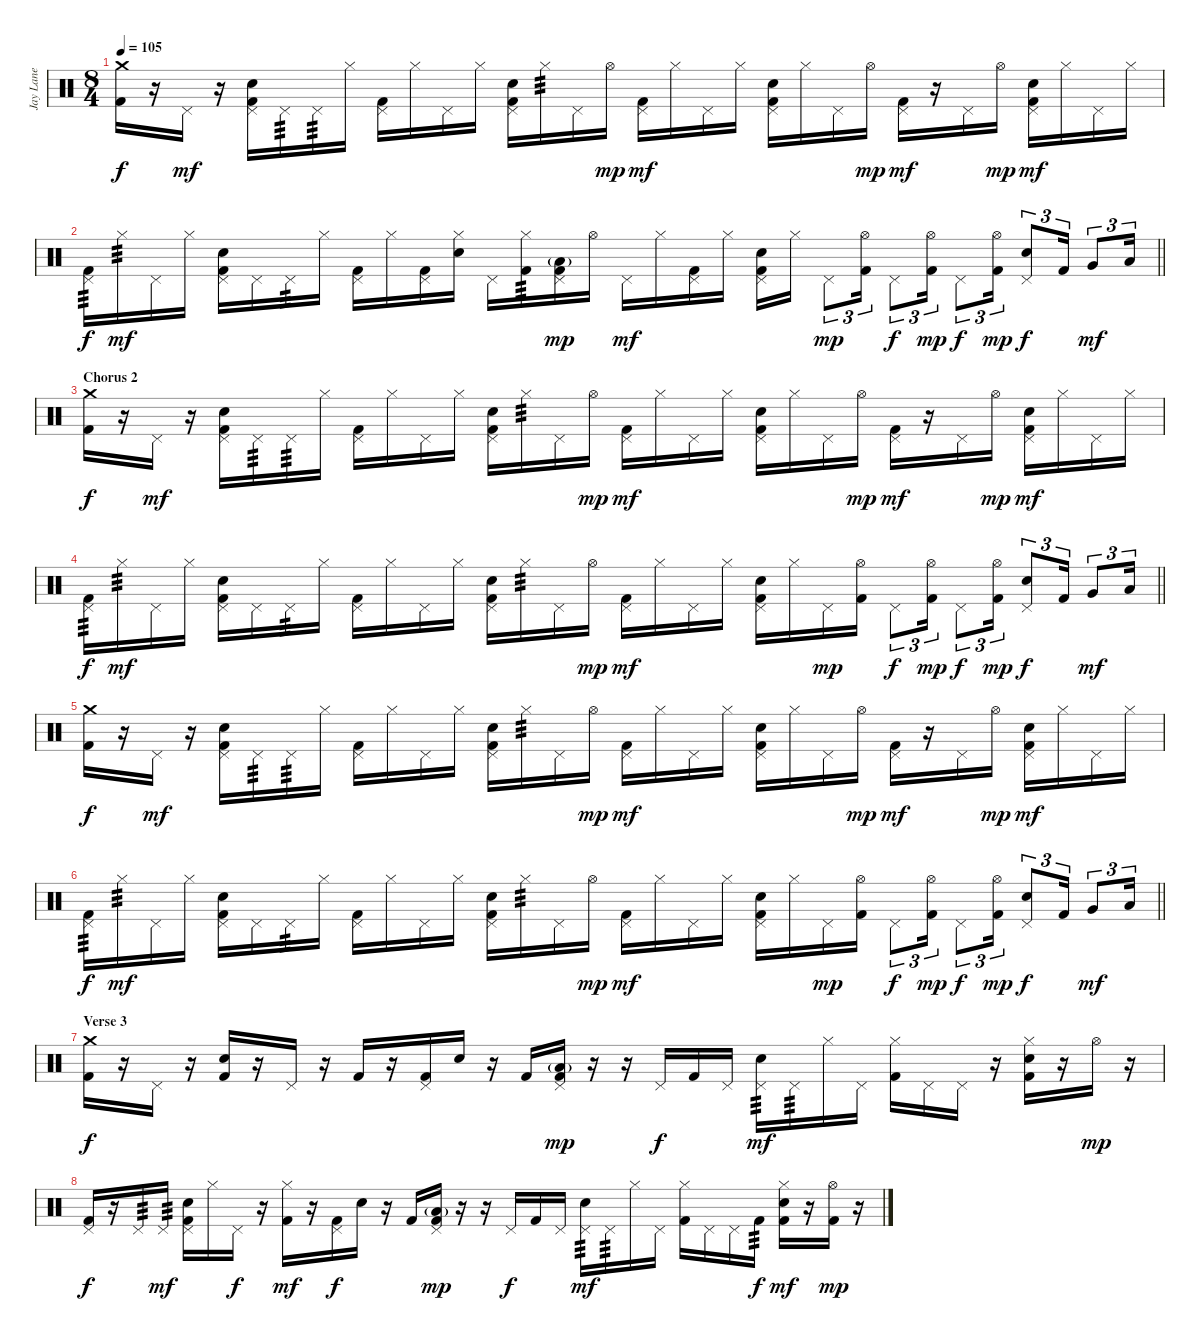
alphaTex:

\track ("Jay Lane" "Jay Lane") {instrument percussion}
\staff {score}
\articulation defaults
\ts (8 4)
\tempo 105
\clef neutral
\ks c
("Crash medium (hit)" "Kick (hit) 2").16{dy f} r.16 "Pedal Hi-Hat (hit)".16{dy mf} r.16 ("Pedal Hi-Hat (hit)" "Electric Snare (hit)" "Kick (hit) 2").16 "Pedal Hi-Hat (hit)".16{tp 3} "Pedal Hi-Hat (hit)".16{tp 3} "Hi-Hat (closed)".16 ("Pedal Hi-Hat (hit)" "Kick (hit) 2").16 "Hi-Hat (closed)".16 "Pedal Hi-Hat (hit)".16 "Hi-Hat (closed)".16 ("Pedal Hi-Hat (hit)" "Electric Snare (hit)" "Kick (hit) 2").16 "Hi-Hat (closed)".16{tp 3} "Pedal Hi-Hat (hit)".16 "Hi-Hat (open)".16{dy mp} ("Pedal Hi-Hat (hit)" "Kick (hit) 2").16{dy mf} "Hi-Hat (closed)".16 "Pedal Hi-Hat (hit)".16 "Hi-Hat (closed)".16 ("Pedal Hi-Hat (hit)" "Electric Snare (hit)" "Kick (hit) 2").16 "Hi-Hat (closed)".16 "Pedal Hi-Hat (hit)".16 "Hi-Hat (open)".16{dy mp} ("Pedal Hi-Hat (hit)" "Kick (hit) 2").16{dy mf} r.16 "Pedal Hi-Hat (hit)".16 "Hi-Hat (open)".16{dy mp} ("Pedal Hi-Hat (hit)" "Electric Snare (hit)" "Kick (hit) 2").16{dy mf} "Hi-Hat (closed)".16 "Pedal Hi-Hat (hit)".16 "Hi-Hat (closed)".16 |
\barLineRight lightlight
("Pedal Hi-Hat (hit)" "Kick (hit) 2").16{tp 3 dy f} "Hi-Hat (closed)".16{tp 3 dy mf} "Pedal Hi-Hat (hit)".16 "Hi-Hat (closed)".16 ("Pedal Hi-Hat (hit)" "Electric Snare (hit)" "Kick (hit) 2").16 "Pedal Hi-Hat (hit)".16 "Pedal Hi-Hat (hit)".16{tp 3} "Hi-Hat (closed)".16 ("Pedal Hi-Hat (hit)" "Kick (hit) 2").16 "Hi-Hat (closed)".16 ("Pedal Hi-Hat (hit)" "Kick (hit) 2").16 ("Hi-Hat (closed)" "Electric Snare (hit)").16 "Pedal Hi-Hat (hit)".16 ("Hi-Hat (closed)" "Kick (hit) 2").16{tp 3} ("Pedal Hi-Hat (hit)" "Low Floor Tom (hit)"{g} "Kick (hit) 2").16{dy mp} "Hi-Hat (open)".16 "Pedal Hi-Hat (hit)".16{dy mf} "Hi-Hat (closed)".16 ("Pedal Hi-Hat (hit)" "Kick (hit) 2").16 "Hi-Hat (closed)".16 ("Pedal Hi-Hat (hit)" "Electric Snare (hit)" "Kick (hit) 2").16 "Hi-Hat (closed)".16 "Pedal Hi-Hat (hit)".8{tu (3 2) dy mp} ("Hi-Hat (open)" "Kick (hit) 2").16{tu (3 2)} "Pedal Hi-Hat (hit)".8{tu (3 2) dy f} ("Hi-Hat (open)" "Kick (hit) 2").16{tu (3 2) dy mp} "Pedal Hi-Hat (hit)".8{tu (3 2) dy f} ("Hi-Hat (open)" "Kick (hit) 2").16{tu (3 2) dy mp} ("Pedal Hi-Hat (hit)" "Electric Snare (hit)").8{tu (3 2) dy f} "Kick (hit) 2".16{tu (3 2)} "Very Low Tom (hit)".8{tu (3 2) dy mf} "Low Floor Tom (hit)".16{tu (3 2)} |
\section ("" "Chorus 2")
("Crash medium (hit)" "Kick (hit) 2").16{dy f} r.16 "Pedal Hi-Hat (hit)".16{dy mf} r.16 ("Pedal Hi-Hat (hit)" "Electric Snare (hit)" "Kick (hit) 2").16 "Pedal Hi-Hat (hit)".16{tp 3} "Pedal Hi-Hat (hit)".16{tp 3} "Hi-Hat (closed)".16 ("Pedal Hi-Hat (hit)" "Kick (hit) 2").16 "Hi-Hat (closed)".16 "Pedal Hi-Hat (hit)".16 "Hi-Hat (closed)".16 ("Pedal Hi-Hat (hit)" "Electric Snare (hit)" "Kick (hit) 2").16 "Hi-Hat (closed)".16{tp 3} "Pedal Hi-Hat (hit)".16 "Hi-Hat (open)".16{dy mp} ("Pedal Hi-Hat (hit)" "Kick (hit) 2").16{dy mf} "Hi-Hat (closed)".16 "Pedal Hi-Hat (hit)".16 "Hi-Hat (closed)".16 ("Pedal Hi-Hat (hit)" "Electric Snare (hit)" "Kick (hit) 2").16 "Hi-Hat (closed)".16 "Pedal Hi-Hat (hit)".16 "Hi-Hat (open)".16{dy mp} ("Pedal Hi-Hat (hit)" "Kick (hit) 2").16{dy mf} r.16 "Pedal Hi-Hat (hit)".16 "Hi-Hat (open)".16{dy mp} ("Pedal Hi-Hat (hit)" "Electric Snare (hit)" "Kick (hit) 2").16{dy mf} "Hi-Hat (closed)".16 "Pedal Hi-Hat (hit)".16 "Hi-Hat (closed)".16 |
\barLineRight lightlight
("Pedal Hi-Hat (hit)" "Kick (hit) 2").16{tp 3 dy f} "Hi-Hat (closed)".16{tp 3 dy mf} "Pedal Hi-Hat (hit)".16 "Hi-Hat (closed)".16 ("Pedal Hi-Hat (hit)" "Electric Snare (hit)" "Kick (hit) 2").16 "Pedal Hi-Hat (hit)".16 "Pedal Hi-Hat (hit)".16{tp 3} "Hi-Hat (closed)".16 ("Pedal Hi-Hat (hit)" "Kick (hit) 2").16 "Hi-Hat (closed)".16 "Pedal Hi-Hat (hit)".16 "Hi-Hat (closed)".16 ("Pedal Hi-Hat (hit)" "Electric Snare (hit)" "Kick (hit) 2").16 "Hi-Hat (closed)".16{tp 3} "Pedal Hi-Hat (hit)".16 "Hi-Hat (open)".16{dy mp} ("Pedal Hi-Hat (hit)" "Kick (hit) 2").16{dy mf} "Hi-Hat (closed)".16 "Pedal Hi-Hat (hit)".16 "Hi-Hat (closed)".16 ("Pedal Hi-Hat (hit)" "Electric Snare (hit)" "Kick (hit) 2").16 "Hi-Hat (closed)".16 "Pedal Hi-Hat (hit)".16{dy mp} ("Hi-Hat (open)" "Kick (hit) 2").16 "Pedal Hi-Hat (hit)".8{tu (3 2) dy f} ("Hi-Hat (open)" "Kick (hit) 2").16{tu (3 2) dy mp} "Pedal Hi-Hat (hit)".8{tu (3 2) dy f} ("Hi-Hat (open)" "Kick (hit) 2").16{tu (3 2) dy mp} ("Pedal Hi-Hat (hit)" "Electric Snare (hit)").8{tu (3 2) dy f} "Kick (hit) 2".16{tu (3 2)} "Very Low Tom (hit)".8{tu (3 2) dy mf} "Low Floor Tom (hit)".16{tu (3 2)} |
("Crash medium (hit)" "Kick (hit) 2").16{dy f} r.16 "Pedal Hi-Hat (hit)".16{dy mf} r.16 ("Pedal Hi-Hat (hit)" "Electric Snare (hit)" "Kick (hit) 2").16 "Pedal Hi-Hat (hit)".16{tp 3} "Pedal Hi-Hat (hit)".16{tp 3} "Hi-Hat (closed)".16 ("Pedal Hi-Hat (hit)" "Kick (hit) 2").16 "Hi-Hat (closed)".16 "Pedal Hi-Hat (hit)".16 "Hi-Hat (closed)".16 ("Pedal Hi-Hat (hit)" "Electric Snare (hit)" "Kick (hit) 2").16 "Hi-Hat (closed)".16{tp 3} "Pedal Hi-Hat (hit)".16 "Hi-Hat (open)".16{dy mp} ("Pedal Hi-Hat (hit)" "Kick (hit) 2").16{dy mf} "Hi-Hat (closed)".16 "Pedal Hi-Hat (hit)".16 "Hi-Hat (closed)".16 ("Pedal Hi-Hat (hit)" "Electric Snare (hit)" "Kick (hit) 2").16 "Hi-Hat (closed)".16 "Pedal Hi-Hat (hit)".16 "Hi-Hat (open)".16{dy mp} ("Pedal Hi-Hat (hit)" "Kick (hit) 2").16{dy mf} r.16 "Pedal Hi-Hat (hit)".16 "Hi-Hat (open)".16{dy mp} ("Pedal Hi-Hat (hit)" "Electric Snare (hit)" "Kick (hit) 2").16{dy mf} "Hi-Hat (closed)".16 "Pedal Hi-Hat (hit)".16 "Hi-Hat (closed)".16 |
\barLineRight lightlight
("Pedal Hi-Hat (hit)" "Kick (hit) 2").16{tp 3 dy f} "Hi-Hat (closed)".16{tp 3 dy mf} "Pedal Hi-Hat (hit)".16 "Hi-Hat (closed)".16 ("Pedal Hi-Hat (hit)" "Electric Snare (hit)" "Kick (hit) 2").16 "Pedal Hi-Hat (hit)".16 "Pedal Hi-Hat (hit)".16{tp 3} "Hi-Hat (closed)".16 ("Pedal Hi-Hat (hit)" "Kick (hit) 2").16 "Hi-Hat (closed)".16 "Pedal Hi-Hat (hit)".16 "Hi-Hat (closed)".16 ("Pedal Hi-Hat (hit)" "Electric Snare (hit)" "Kick (hit) 2").16 "Hi-Hat (closed)".16{tp 3} "Pedal Hi-Hat (hit)".16 "Hi-Hat (open)".16{dy mp} ("Pedal Hi-Hat (hit)" "Kick (hit) 2").16{dy mf} "Hi-Hat (closed)".16 "Pedal Hi-Hat (hit)".16 "Hi-Hat (closed)".16 ("Pedal Hi-Hat (hit)" "Electric Snare (hit)" "Kick (hit) 2").16 "Hi-Hat (closed)".16 "Pedal Hi-Hat (hit)".16{dy mp} ("Hi-Hat (open)" "Kick (hit) 2").16 "Pedal Hi-Hat (hit)".8{tu (3 2) dy f} ("Hi-Hat (open)" "Kick (hit) 2").16{tu (3 2) dy mp} "Pedal Hi-Hat (hit)".8{tu (3 2) dy f} ("Hi-Hat (open)" "Kick (hit) 2").16{tu (3 2) dy mp} ("Pedal Hi-Hat (hit)" "Electric Snare (hit)").8{tu (3 2) dy f} "Kick (hit) 2".16{tu (3 2)} "Very Low Tom (hit)".8{tu (3 2) dy mf} "Low Floor Tom (hit)".16{tu (3 2)} |
\section ("" "Verse 3")
("Crash medium (hit)" "Kick (hit) 2").16{dy f} r.16 "Pedal Hi-Hat (hit)".16 r.16 ("Electric Snare (hit)" "Kick (hit) 2").16 r.16 "Pedal Hi-Hat (hit)".16 r.16 "Kick (hit) 2".16 r.16 ("Pedal Hi-Hat (hit)" "Kick (hit) 2").16 "Electric Snare (hit)".16 r.16 "Kick (hit) 2".16 ("Pedal Hi-Hat (hit)" "Low Floor Tom (hit)"{g} "Kick (hit) 2").16{dy mp} r.16 r.16 "Pedal Hi-Hat (hit)".16{dy f} "Kick (hit) 2".16 "Pedal Hi-Hat (hit)".16 ("Pedal Hi-Hat (hit)" "Electric Snare (hit)").16{tp 3 dy mf} "Pedal Hi-Hat (hit)".16{tp 3} "Hi-Hat (closed)".16 "Pedal Hi-Hat (hit)".16 ("Hi-Hat (closed)" "Kick (hit) 2").16 "Pedal Hi-Hat (hit)".16 "Pedal Hi-Hat (hit)".16 r.16 ("Hi-Hat (closed)" "Electric Snare (hit)" "Kick (hit) 2").16 r.16 "Hi-Hat (open)".16{dy mp} r.16 |
("Pedal Hi-Hat (hit)" "Kick (hit) 2").16{dy f} r.16 "Pedal Hi-Hat (hit)".16{tp 3} "Pedal Hi-Hat (hit)".16{tp 3 dy mf} ("Pedal Hi-Hat (hit)" "Electric Snare (hit)" "Kick (hit) 2").16 "Hi-Hat (closed)".16 "Pedal Hi-Hat (hit)".16{dy f} r.16 ("Hi-Hat (closed)" "Kick (hit) 2").16{dy mf} r.16 ("Pedal Hi-Hat (hit)" "Kick (hit) 2").16{dy f} "Electric Snare (hit)".16 r.16 "Kick (hit) 2".16 ("Pedal Hi-Hat (hit)" "Low Floor Tom (hit)"{g} "Kick (hit) 2").16{dy mp} r.16 r.16 "Pedal Hi-Hat (hit)".16{dy f} "Kick (hit) 2".16 "Pedal Hi-Hat (hit)".16 ("Pedal Hi-Hat (hit)" "Electric Snare (hit)").16{tp 3 dy mf} "Pedal Hi-Hat (hit)".16{tp 3} "Hi-Hat (closed)".16 "Pedal Hi-Hat (hit)".16 ("Hi-Hat (closed)" "Kick (hit) 2").16 "Pedal Hi-Hat (hit)".16 "Pedal Hi-Hat (hit)".16 "Kick (hit) 2".16{tp 3 dy f} ("Hi-Hat (closed)" "Electric Snare (hit)" "Kick (hit) 2").16{dy mf} r.16 ("Hi-Hat (open)" "Kick (hit) 2").16{dy mp} r.16
